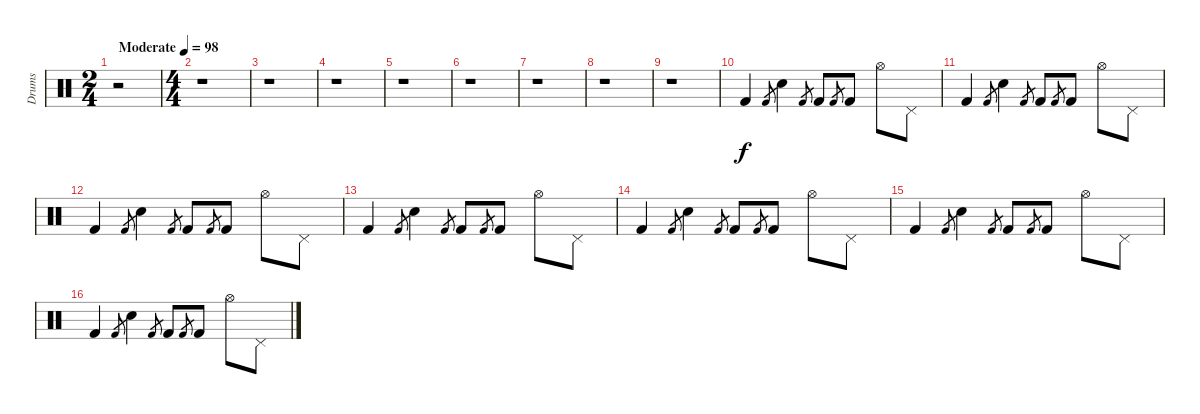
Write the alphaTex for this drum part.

\track ("Drums" "Drums") {instrument percussion}
\staff {score}
\articulation defaults
\ts (2 4)
\tempo (98 "Moderate")
\clef neutral
\ks c
r.2{dy f} |
\ts (4 4)
r.1 |
r.1 |
r.1 |
r.1 |
r.1 |
r.1 |
r.1 |
r.1 |
"Kick (hit) 2".4 "Kick (hit) 2".8{gr} "Snare (hit) 2".4 "Kick (hit) 2".8{gr} "Kick (hit) 2".8 "Kick (hit) 2".8{gr} "Kick (hit) 2".8 "Hi-Hat (open)".8 "Pedal Hi-Hat (hit)".8 |
"Kick (hit) 2".4 "Kick (hit) 2".8{gr} "Snare (hit) 2".4 "Kick (hit) 2".8{gr} "Kick (hit) 2".8 "Kick (hit) 2".8{gr} "Kick (hit) 2".8 "Hi-Hat (open)".8 "Pedal Hi-Hat (hit)".8 |
"Kick (hit) 2".4 "Kick (hit) 2".8{gr} "Snare (hit) 2".4 "Kick (hit) 2".8{gr} "Kick (hit) 2".8 "Kick (hit) 2".8{gr} "Kick (hit) 2".8 "Hi-Hat (open)".8 "Pedal Hi-Hat (hit)".8 |
"Kick (hit) 2".4 "Kick (hit) 2".8{gr} "Snare (hit) 2".4 "Kick (hit) 2".8{gr} "Kick (hit) 2".8 "Kick (hit) 2".8{gr} "Kick (hit) 2".8 "Hi-Hat (open)".8 "Pedal Hi-Hat (hit)".8 |
"Kick (hit) 2".4 "Kick (hit) 2".8{gr} "Snare (hit) 2".4 "Kick (hit) 2".8{gr} "Kick (hit) 2".8 "Kick (hit) 2".8{gr} "Kick (hit) 2".8 "Hi-Hat (open)".8 "Pedal Hi-Hat (hit)".8 |
"Kick (hit) 2".4 "Kick (hit) 2".8{gr} "Snare (hit) 2".4 "Kick (hit) 2".8{gr} "Kick (hit) 2".8 "Kick (hit) 2".8{gr} "Kick (hit) 2".8 "Hi-Hat (open)".8 "Pedal Hi-Hat (hit)".8 |
"Kick (hit) 2".4 "Kick (hit) 2".8{gr} "Snare (hit) 2".4 "Kick (hit) 2".8{gr} "Kick (hit) 2".8 "Kick (hit) 2".8{gr} "Kick (hit) 2".8 "Hi-Hat (open)".8 "Pedal Hi-Hat (hit)".8
